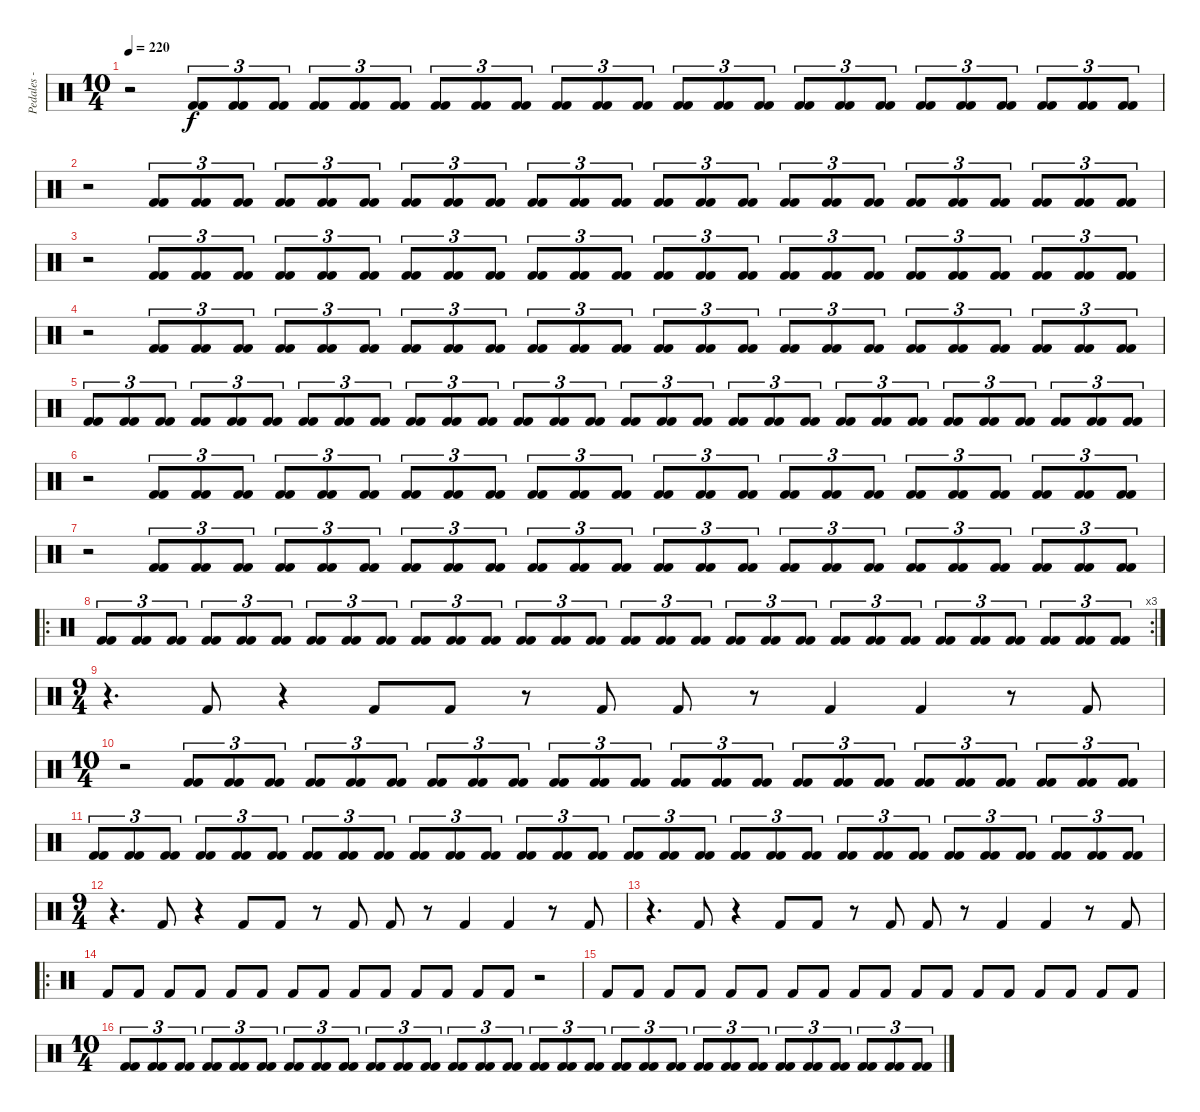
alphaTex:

\track ("Pedales - Compa" "Pedales - ") {instrument percussion}
\staff {score}
\articulation defaults
\ts (10 4)
\tempo 220
\clef neutral
\ks c
r.2{dy f} ("Kick (hit) 2" "Kick (hit) 2").8{tu (3 2)} ("Kick (hit) 2" "Kick (hit) 2").8{tu (3 2)} ("Kick (hit) 2" "Kick (hit) 2").8{tu (3 2)} ("Kick (hit) 2" "Kick (hit) 2").8{tu (3 2)} ("Kick (hit) 2" "Kick (hit) 2").8{tu (3 2)} ("Kick (hit) 2" "Kick (hit) 2").8{tu (3 2)} ("Kick (hit) 2" "Kick (hit) 2").8{tu (3 2)} ("Kick (hit) 2" "Kick (hit) 2").8{tu (3 2)} ("Kick (hit) 2" "Kick (hit) 2").8{tu (3 2)} ("Kick (hit) 2" "Kick (hit) 2").8{tu (3 2)} ("Kick (hit) 2" "Kick (hit) 2").8{tu (3 2)} ("Kick (hit) 2" "Kick (hit) 2").8{tu (3 2)} ("Kick (hit) 2" "Kick (hit) 2").8{tu (3 2)} ("Kick (hit) 2" "Kick (hit) 2").8{tu (3 2)} ("Kick (hit) 2" "Kick (hit) 2").8{tu (3 2)} ("Kick (hit) 2" "Kick (hit) 2").8{tu (3 2)} ("Kick (hit) 2" "Kick (hit) 2").8{tu (3 2)} ("Kick (hit) 2" "Kick (hit) 2").8{tu (3 2)} ("Kick (hit) 2" "Kick (hit) 2").8{tu (3 2)} ("Kick (hit) 2" "Kick (hit) 2").8{tu (3 2)} ("Kick (hit) 2" "Kick (hit) 2").8{tu (3 2)} ("Kick (hit) 2" "Kick (hit) 2").8{tu (3 2)} ("Kick (hit) 2" "Kick (hit) 2").8{tu (3 2)} ("Kick (hit) 2" "Kick (hit) 2").8{tu (3 2)} |
r.2 ("Kick (hit) 2" "Kick (hit) 2").8{tu (3 2)} ("Kick (hit) 2" "Kick (hit) 2").8{tu (3 2)} ("Kick (hit) 2" "Kick (hit) 2").8{tu (3 2)} ("Kick (hit) 2" "Kick (hit) 2").8{tu (3 2)} ("Kick (hit) 2" "Kick (hit) 2").8{tu (3 2)} ("Kick (hit) 2" "Kick (hit) 2").8{tu (3 2)} ("Kick (hit) 2" "Kick (hit) 2").8{tu (3 2)} ("Kick (hit) 2" "Kick (hit) 2").8{tu (3 2)} ("Kick (hit) 2" "Kick (hit) 2").8{tu (3 2)} ("Kick (hit) 2" "Kick (hit) 2").8{tu (3 2)} ("Kick (hit) 2" "Kick (hit) 2").8{tu (3 2)} ("Kick (hit) 2" "Kick (hit) 2").8{tu (3 2)} ("Kick (hit) 2" "Kick (hit) 2").8{tu (3 2)} ("Kick (hit) 2" "Kick (hit) 2").8{tu (3 2)} ("Kick (hit) 2" "Kick (hit) 2").8{tu (3 2)} ("Kick (hit) 2" "Kick (hit) 2").8{tu (3 2)} ("Kick (hit) 2" "Kick (hit) 2").8{tu (3 2)} ("Kick (hit) 2" "Kick (hit) 2").8{tu (3 2)} ("Kick (hit) 2" "Kick (hit) 2").8{tu (3 2)} ("Kick (hit) 2" "Kick (hit) 2").8{tu (3 2)} ("Kick (hit) 2" "Kick (hit) 2").8{tu (3 2)} ("Kick (hit) 2" "Kick (hit) 2").8{tu (3 2)} ("Kick (hit) 2" "Kick (hit) 2").8{tu (3 2)} ("Kick (hit) 2" "Kick (hit) 2").8{tu (3 2)} |
r.2 ("Kick (hit) 2" "Kick (hit) 2").8{tu (3 2)} ("Kick (hit) 2" "Kick (hit) 2").8{tu (3 2)} ("Kick (hit) 2" "Kick (hit) 2").8{tu (3 2)} ("Kick (hit) 2" "Kick (hit) 2").8{tu (3 2)} ("Kick (hit) 2" "Kick (hit) 2").8{tu (3 2)} ("Kick (hit) 2" "Kick (hit) 2").8{tu (3 2)} ("Kick (hit) 2" "Kick (hit) 2").8{tu (3 2)} ("Kick (hit) 2" "Kick (hit) 2").8{tu (3 2)} ("Kick (hit) 2" "Kick (hit) 2").8{tu (3 2)} ("Kick (hit) 2" "Kick (hit) 2").8{tu (3 2)} ("Kick (hit) 2" "Kick (hit) 2").8{tu (3 2)} ("Kick (hit) 2" "Kick (hit) 2").8{tu (3 2)} ("Kick (hit) 2" "Kick (hit) 2").8{tu (3 2)} ("Kick (hit) 2" "Kick (hit) 2").8{tu (3 2)} ("Kick (hit) 2" "Kick (hit) 2").8{tu (3 2)} ("Kick (hit) 2" "Kick (hit) 2").8{tu (3 2)} ("Kick (hit) 2" "Kick (hit) 2").8{tu (3 2)} ("Kick (hit) 2" "Kick (hit) 2").8{tu (3 2)} ("Kick (hit) 2" "Kick (hit) 2").8{tu (3 2)} ("Kick (hit) 2" "Kick (hit) 2").8{tu (3 2)} ("Kick (hit) 2" "Kick (hit) 2").8{tu (3 2)} ("Kick (hit) 2" "Kick (hit) 2").8{tu (3 2)} ("Kick (hit) 2" "Kick (hit) 2").8{tu (3 2)} ("Kick (hit) 2" "Kick (hit) 2").8{tu (3 2)} |
r.2 ("Kick (hit) 2" "Kick (hit) 2").8{tu (3 2)} ("Kick (hit) 2" "Kick (hit) 2").8{tu (3 2)} ("Kick (hit) 2" "Kick (hit) 2").8{tu (3 2)} ("Kick (hit) 2" "Kick (hit) 2").8{tu (3 2)} ("Kick (hit) 2" "Kick (hit) 2").8{tu (3 2)} ("Kick (hit) 2" "Kick (hit) 2").8{tu (3 2)} ("Kick (hit) 2" "Kick (hit) 2").8{tu (3 2)} ("Kick (hit) 2" "Kick (hit) 2").8{tu (3 2)} ("Kick (hit) 2" "Kick (hit) 2").8{tu (3 2)} ("Kick (hit) 2" "Kick (hit) 2").8{tu (3 2)} ("Kick (hit) 2" "Kick (hit) 2").8{tu (3 2)} ("Kick (hit) 2" "Kick (hit) 2").8{tu (3 2)} ("Kick (hit) 2" "Kick (hit) 2").8{tu (3 2)} ("Kick (hit) 2" "Kick (hit) 2").8{tu (3 2)} ("Kick (hit) 2" "Kick (hit) 2").8{tu (3 2)} ("Kick (hit) 2" "Kick (hit) 2").8{tu (3 2)} ("Kick (hit) 2" "Kick (hit) 2").8{tu (3 2)} ("Kick (hit) 2" "Kick (hit) 2").8{tu (3 2)} ("Kick (hit) 2" "Kick (hit) 2").8{tu (3 2)} ("Kick (hit) 2" "Kick (hit) 2").8{tu (3 2)} ("Kick (hit) 2" "Kick (hit) 2").8{tu (3 2)} ("Kick (hit) 2" "Kick (hit) 2").8{tu (3 2)} ("Kick (hit) 2" "Kick (hit) 2").8{tu (3 2)} ("Kick (hit) 2" "Kick (hit) 2").8{tu (3 2)} |
("Kick (hit) 2" "Kick (hit) 2").8{tu (3 2)} ("Kick (hit) 2" "Kick (hit) 2").8{tu (3 2)} ("Kick (hit) 2" "Kick (hit) 2").8{tu (3 2)} ("Kick (hit) 2" "Kick (hit) 2").8{tu (3 2)} ("Kick (hit) 2" "Kick (hit) 2").8{tu (3 2)} ("Kick (hit) 2" "Kick (hit) 2").8{tu (3 2)} ("Kick (hit) 2" "Kick (hit) 2").8{tu (3 2)} ("Kick (hit) 2" "Kick (hit) 2").8{tu (3 2)} ("Kick (hit) 2" "Kick (hit) 2").8{tu (3 2)} ("Kick (hit) 2" "Kick (hit) 2").8{tu (3 2)} ("Kick (hit) 2" "Kick (hit) 2").8{tu (3 2)} ("Kick (hit) 2" "Kick (hit) 2").8{tu (3 2)} ("Kick (hit) 2" "Kick (hit) 2").8{tu (3 2)} ("Kick (hit) 2" "Kick (hit) 2").8{tu (3 2)} ("Kick (hit) 2" "Kick (hit) 2").8{tu (3 2)} ("Kick (hit) 2" "Kick (hit) 2").8{tu (3 2)} ("Kick (hit) 2" "Kick (hit) 2").8{tu (3 2)} ("Kick (hit) 2" "Kick (hit) 2").8{tu (3 2)} ("Kick (hit) 2" "Kick (hit) 2").8{tu (3 2)} ("Kick (hit) 2" "Kick (hit) 2").8{tu (3 2)} ("Kick (hit) 2" "Kick (hit) 2").8{tu (3 2)} ("Kick (hit) 2" "Kick (hit) 2").8{tu (3 2)} ("Kick (hit) 2" "Kick (hit) 2").8{tu (3 2)} ("Kick (hit) 2" "Kick (hit) 2").8{tu (3 2)} ("Kick (hit) 2" "Kick (hit) 2").8{tu (3 2)} ("Kick (hit) 2" "Kick (hit) 2").8{tu (3 2)} ("Kick (hit) 2" "Kick (hit) 2").8{tu (3 2)} ("Kick (hit) 2" "Kick (hit) 2").8{tu (3 2)} ("Kick (hit) 2" "Kick (hit) 2").8{tu (3 2)} ("Kick (hit) 2" "Kick (hit) 2").8{tu (3 2)} |
r.2 ("Kick (hit) 2" "Kick (hit) 2").8{tu (3 2)} ("Kick (hit) 2" "Kick (hit) 2").8{tu (3 2)} ("Kick (hit) 2" "Kick (hit) 2").8{tu (3 2)} ("Kick (hit) 2" "Kick (hit) 2").8{tu (3 2)} ("Kick (hit) 2" "Kick (hit) 2").8{tu (3 2)} ("Kick (hit) 2" "Kick (hit) 2").8{tu (3 2)} ("Kick (hit) 2" "Kick (hit) 2").8{tu (3 2)} ("Kick (hit) 2" "Kick (hit) 2").8{tu (3 2)} ("Kick (hit) 2" "Kick (hit) 2").8{tu (3 2)} ("Kick (hit) 2" "Kick (hit) 2").8{tu (3 2)} ("Kick (hit) 2" "Kick (hit) 2").8{tu (3 2)} ("Kick (hit) 2" "Kick (hit) 2").8{tu (3 2)} ("Kick (hit) 2" "Kick (hit) 2").8{tu (3 2)} ("Kick (hit) 2" "Kick (hit) 2").8{tu (3 2)} ("Kick (hit) 2" "Kick (hit) 2").8{tu (3 2)} ("Kick (hit) 2" "Kick (hit) 2").8{tu (3 2)} ("Kick (hit) 2" "Kick (hit) 2").8{tu (3 2)} ("Kick (hit) 2" "Kick (hit) 2").8{tu (3 2)} ("Kick (hit) 2" "Kick (hit) 2").8{tu (3 2)} ("Kick (hit) 2" "Kick (hit) 2").8{tu (3 2)} ("Kick (hit) 2" "Kick (hit) 2").8{tu (3 2)} ("Kick (hit) 2" "Kick (hit) 2").8{tu (3 2)} ("Kick (hit) 2" "Kick (hit) 2").8{tu (3 2)} ("Kick (hit) 2" "Kick (hit) 2").8{tu (3 2)} |
r.2 ("Kick (hit) 2" "Kick (hit) 2").8{tu (3 2)} ("Kick (hit) 2" "Kick (hit) 2").8{tu (3 2)} ("Kick (hit) 2" "Kick (hit) 2").8{tu (3 2)} ("Kick (hit) 2" "Kick (hit) 2").8{tu (3 2)} ("Kick (hit) 2" "Kick (hit) 2").8{tu (3 2)} ("Kick (hit) 2" "Kick (hit) 2").8{tu (3 2)} ("Kick (hit) 2" "Kick (hit) 2").8{tu (3 2)} ("Kick (hit) 2" "Kick (hit) 2").8{tu (3 2)} ("Kick (hit) 2" "Kick (hit) 2").8{tu (3 2)} ("Kick (hit) 2" "Kick (hit) 2").8{tu (3 2)} ("Kick (hit) 2" "Kick (hit) 2").8{tu (3 2)} ("Kick (hit) 2" "Kick (hit) 2").8{tu (3 2)} ("Kick (hit) 2" "Kick (hit) 2").8{tu (3 2)} ("Kick (hit) 2" "Kick (hit) 2").8{tu (3 2)} ("Kick (hit) 2" "Kick (hit) 2").8{tu (3 2)} ("Kick (hit) 2" "Kick (hit) 2").8{tu (3 2)} ("Kick (hit) 2" "Kick (hit) 2").8{tu (3 2)} ("Kick (hit) 2" "Kick (hit) 2").8{tu (3 2)} ("Kick (hit) 2" "Kick (hit) 2").8{tu (3 2)} ("Kick (hit) 2" "Kick (hit) 2").8{tu (3 2)} ("Kick (hit) 2" "Kick (hit) 2").8{tu (3 2)} ("Kick (hit) 2" "Kick (hit) 2").8{tu (3 2)} ("Kick (hit) 2" "Kick (hit) 2").8{tu (3 2)} ("Kick (hit) 2" "Kick (hit) 2").8{tu (3 2)} |
\ro
\rc 3
("Kick (hit) 2" "Kick (hit) 2").8{tu (3 2)} ("Kick (hit) 2" "Kick (hit) 2").8{tu (3 2)} ("Kick (hit) 2" "Kick (hit) 2").8{tu (3 2)} ("Kick (hit) 2" "Kick (hit) 2").8{tu (3 2)} ("Kick (hit) 2" "Kick (hit) 2").8{tu (3 2)} ("Kick (hit) 2" "Kick (hit) 2").8{tu (3 2)} ("Kick (hit) 2" "Kick (hit) 2").8{tu (3 2)} ("Kick (hit) 2" "Kick (hit) 2").8{tu (3 2)} ("Kick (hit) 2" "Kick (hit) 2").8{tu (3 2)} ("Kick (hit) 2" "Kick (hit) 2").8{tu (3 2)} ("Kick (hit) 2" "Kick (hit) 2").8{tu (3 2)} ("Kick (hit) 2" "Kick (hit) 2").8{tu (3 2)} ("Kick (hit) 2" "Kick (hit) 2").8{tu (3 2)} ("Kick (hit) 2" "Kick (hit) 2").8{tu (3 2)} ("Kick (hit) 2" "Kick (hit) 2").8{tu (3 2)} ("Kick (hit) 2" "Kick (hit) 2").8{tu (3 2)} ("Kick (hit) 2" "Kick (hit) 2").8{tu (3 2)} ("Kick (hit) 2" "Kick (hit) 2").8{tu (3 2)} ("Kick (hit) 2" "Kick (hit) 2").8{tu (3 2)} ("Kick (hit) 2" "Kick (hit) 2").8{tu (3 2)} ("Kick (hit) 2" "Kick (hit) 2").8{tu (3 2)} ("Kick (hit) 2" "Kick (hit) 2").8{tu (3 2)} ("Kick (hit) 2" "Kick (hit) 2").8{tu (3 2)} ("Kick (hit) 2" "Kick (hit) 2").8{tu (3 2)} ("Kick (hit) 2" "Kick (hit) 2").8{tu (3 2)} ("Kick (hit) 2" "Kick (hit) 2").8{tu (3 2)} ("Kick (hit) 2" "Kick (hit) 2").8{tu (3 2)} ("Kick (hit) 2" "Kick (hit) 2").8{tu (3 2)} ("Kick (hit) 2" "Kick (hit) 2").8{tu (3 2)} ("Kick (hit) 2" "Kick (hit) 2").8{tu (3 2)} |
\ts (9 4)
r.4{d} "Kick (hit) 2".8 r.4 "Kick (hit) 2".8 "Kick (hit) 2".8 r.8 "Kick (hit) 2".8 "Kick (hit) 2".8 r.8 "Kick (hit) 2".4 "Kick (hit) 2".4 r.8 "Kick (hit) 2".8 |
\ts (10 4)
r.2 ("Kick (hit) 2" "Kick (hit) 2").8{tu (3 2)} ("Kick (hit) 2" "Kick (hit) 2").8{tu (3 2)} ("Kick (hit) 2" "Kick (hit) 2").8{tu (3 2)} ("Kick (hit) 2" "Kick (hit) 2").8{tu (3 2)} ("Kick (hit) 2" "Kick (hit) 2").8{tu (3 2)} ("Kick (hit) 2" "Kick (hit) 2").8{tu (3 2)} ("Kick (hit) 2" "Kick (hit) 2").8{tu (3 2)} ("Kick (hit) 2" "Kick (hit) 2").8{tu (3 2)} ("Kick (hit) 2" "Kick (hit) 2").8{tu (3 2)} ("Kick (hit) 2" "Kick (hit) 2").8{tu (3 2)} ("Kick (hit) 2" "Kick (hit) 2").8{tu (3 2)} ("Kick (hit) 2" "Kick (hit) 2").8{tu (3 2)} ("Kick (hit) 2" "Kick (hit) 2").8{tu (3 2)} ("Kick (hit) 2" "Kick (hit) 2").8{tu (3 2)} ("Kick (hit) 2" "Kick (hit) 2").8{tu (3 2)} ("Kick (hit) 2" "Kick (hit) 2").8{tu (3 2)} ("Kick (hit) 2" "Kick (hit) 2").8{tu (3 2)} ("Kick (hit) 2" "Kick (hit) 2").8{tu (3 2)} ("Kick (hit) 2" "Kick (hit) 2").8{tu (3 2)} ("Kick (hit) 2" "Kick (hit) 2").8{tu (3 2)} ("Kick (hit) 2" "Kick (hit) 2").8{tu (3 2)} ("Kick (hit) 2" "Kick (hit) 2").8{tu (3 2)} ("Kick (hit) 2" "Kick (hit) 2").8{tu (3 2)} ("Kick (hit) 2" "Kick (hit) 2").8{tu (3 2)} |
("Kick (hit) 2" "Kick (hit) 2").8{tu (3 2)} ("Kick (hit) 2" "Kick (hit) 2").8{tu (3 2)} ("Kick (hit) 2" "Kick (hit) 2").8{tu (3 2)} ("Kick (hit) 2" "Kick (hit) 2").8{tu (3 2)} ("Kick (hit) 2" "Kick (hit) 2").8{tu (3 2)} ("Kick (hit) 2" "Kick (hit) 2").8{tu (3 2)} ("Kick (hit) 2" "Kick (hit) 2").8{tu (3 2)} ("Kick (hit) 2" "Kick (hit) 2").8{tu (3 2)} ("Kick (hit) 2" "Kick (hit) 2").8{tu (3 2)} ("Kick (hit) 2" "Kick (hit) 2").8{tu (3 2)} ("Kick (hit) 2" "Kick (hit) 2").8{tu (3 2)} ("Kick (hit) 2" "Kick (hit) 2").8{tu (3 2)} ("Kick (hit) 2" "Kick (hit) 2").8{tu (3 2)} ("Kick (hit) 2" "Kick (hit) 2").8{tu (3 2)} ("Kick (hit) 2" "Kick (hit) 2").8{tu (3 2)} ("Kick (hit) 2" "Kick (hit) 2").8{tu (3 2)} ("Kick (hit) 2" "Kick (hit) 2").8{tu (3 2)} ("Kick (hit) 2" "Kick (hit) 2").8{tu (3 2)} ("Kick (hit) 2" "Kick (hit) 2").8{tu (3 2)} ("Kick (hit) 2" "Kick (hit) 2").8{tu (3 2)} ("Kick (hit) 2" "Kick (hit) 2").8{tu (3 2)} ("Kick (hit) 2" "Kick (hit) 2").8{tu (3 2)} ("Kick (hit) 2" "Kick (hit) 2").8{tu (3 2)} ("Kick (hit) 2" "Kick (hit) 2").8{tu (3 2)} ("Kick (hit) 2" "Kick (hit) 2").8{tu (3 2)} ("Kick (hit) 2" "Kick (hit) 2").8{tu (3 2)} ("Kick (hit) 2" "Kick (hit) 2").8{tu (3 2)} ("Kick (hit) 2" "Kick (hit) 2").8{tu (3 2)} ("Kick (hit) 2" "Kick (hit) 2").8{tu (3 2)} ("Kick (hit) 2" "Kick (hit) 2").8{tu (3 2)} |
\ts (9 4)
r.4{d} "Kick (hit) 2".8 r.4 "Kick (hit) 2".8 "Kick (hit) 2".8 r.8 "Kick (hit) 2".8 "Kick (hit) 2".8 r.8 "Kick (hit) 2".4 "Kick (hit) 2".4 r.8 "Kick (hit) 2".8 |
r.4{d} "Kick (hit) 2".8 r.4 "Kick (hit) 2".8 "Kick (hit) 2".8 r.8 "Kick (hit) 2".8 "Kick (hit) 2".8 r.8 "Kick (hit) 2".4 "Kick (hit) 2".4 r.8 "Kick (hit) 2".8 |
\ro "Kick (hit) 2".8 "Kick (hit) 2".8 "Kick (hit) 2".8 "Kick (hit) 2".8 "Kick (hit) 2".8 "Kick (hit) 2".8 "Kick (hit) 2".8 "Kick (hit) 2".8 "Kick (hit) 2".8 "Kick (hit) 2".8 "Kick (hit) 2".8 "Kick (hit) 2".8 "Kick (hit) 2".8 "Kick (hit) 2".8
r.2 |
"Kick (hit) 2".8 "Kick (hit) 2".8 "Kick (hit) 2".8 "Kick (hit) 2".8 "Kick (hit) 2".8 "Kick (hit) 2".8 "Kick (hit) 2".8 "Kick (hit) 2".8 "Kick (hit) 2".8 "Kick (hit) 2".8 "Kick (hit) 2".8 "Kick (hit) 2".8 "Kick (hit) 2".8 "Kick (hit) 2".8 "Kick (hit) 2".8 "Kick (hit) 2".8 "Kick (hit) 2".8 "Kick (hit) 2".8 |
\ts (10 4)
("Kick (hit) 2" "Kick (hit) 2").8{tu (3 2)} ("Kick (hit) 2" "Kick (hit) 2").8{tu (3 2)} ("Kick (hit) 2" "Kick (hit) 2").8{tu (3 2)} ("Kick (hit) 2" "Kick (hit) 2").8{tu (3 2)} ("Kick (hit) 2" "Kick (hit) 2").8{tu (3 2)} ("Kick (hit) 2" "Kick (hit) 2").8{tu (3 2)} ("Kick (hit) 2" "Kick (hit) 2").8{tu (3 2)} ("Kick (hit) 2" "Kick (hit) 2").8{tu (3 2)} ("Kick (hit) 2" "Kick (hit) 2").8{tu (3 2)} ("Kick (hit) 2" "Kick (hit) 2").8{tu (3 2)} ("Kick (hit) 2" "Kick (hit) 2").8{tu (3 2)} ("Kick (hit) 2" "Kick (hit) 2").8{tu (3 2)} ("Kick (hit) 2" "Kick (hit) 2").8{tu (3 2)} ("Kick (hit) 2" "Kick (hit) 2").8{tu (3 2)} ("Kick (hit) 2" "Kick (hit) 2").8{tu (3 2)} ("Kick (hit) 2" "Kick (hit) 2").8{tu (3 2)} ("Kick (hit) 2" "Kick (hit) 2").8{tu (3 2)} ("Kick (hit) 2" "Kick (hit) 2").8{tu (3 2)} ("Kick (hit) 2" "Kick (hit) 2").8{tu (3 2)} ("Kick (hit) 2" "Kick (hit) 2").8{tu (3 2)} ("Kick (hit) 2" "Kick (hit) 2").8{tu (3 2)} ("Kick (hit) 2" "Kick (hit) 2").8{tu (3 2)} ("Kick (hit) 2" "Kick (hit) 2").8{tu (3 2)} ("Kick (hit) 2" "Kick (hit) 2").8{tu (3 2)} ("Kick (hit) 2" "Kick (hit) 2").8{tu (3 2)} ("Kick (hit) 2" "Kick (hit) 2").8{tu (3 2)} ("Kick (hit) 2" "Kick (hit) 2").8{tu (3 2)} ("Kick (hit) 2" "Kick (hit) 2").8{tu (3 2)} ("Kick (hit) 2" "Kick (hit) 2").8{tu (3 2)} ("Kick (hit) 2" "Kick (hit) 2").8{tu (3 2)}
